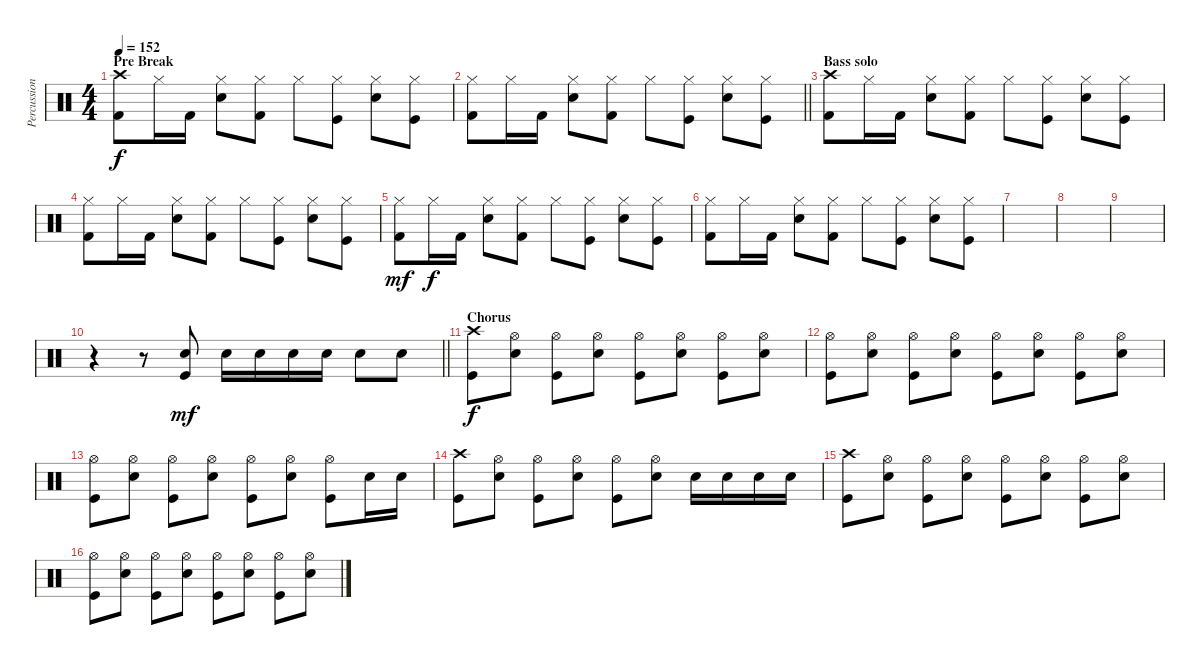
\track ("Percussion" "Percussion") {instrument percussion}
\staff {score}
\articulation defaults
\ts (4 4)
\section ("" "Pre Break")
\tempo 152
\clef neutral
\ks c
("Crash high (hit)" "Kick (hit) 2").8{dy f} "Hi-Hat (closed)".16 "Kick (hit) 2".16 ("Hi-Hat (closed)" "Snare (hit) 2").8 ("Hi-Hat (closed)" "Kick (hit) 2").8 "Hi-Hat (closed)".8 ("Hi-Hat (closed)" "Kick (hit)").8 ("Hi-Hat (closed)" "Snare (hit) 2").8 ("Hi-Hat (closed)" "Kick (hit)").8 |
\barLineRight lightlight
("Hi-Hat (closed)" "Kick (hit) 2").8 "Hi-Hat (closed)".16 "Kick (hit) 2".16 ("Hi-Hat (closed)" "Snare (hit) 2").8 ("Hi-Hat (closed)" "Kick (hit) 2").8 "Hi-Hat (closed)".8 ("Hi-Hat (closed)" "Kick (hit)").8 ("Hi-Hat (closed)" "Snare (hit) 2").8 ("Hi-Hat (closed)" "Kick (hit)").8 |
\section ("" "Bass solo")
("Crash high (hit)" "Kick (hit) 2").8 "Hi-Hat (closed)".16 "Kick (hit) 2".16 ("Hi-Hat (closed)" "Snare (hit) 2").8 ("Hi-Hat (closed)" "Kick (hit) 2").8 "Hi-Hat (closed)".8 ("Hi-Hat (closed)" "Kick (hit)").8 ("Hi-Hat (closed)" "Snare (hit) 2").8 ("Hi-Hat (closed)" "Kick (hit)").8 |
("Hi-Hat (closed)" "Kick (hit) 2").8 "Hi-Hat (closed)".16 "Kick (hit) 2".16 ("Hi-Hat (closed)" "Snare (hit) 2").8 ("Hi-Hat (closed)" "Kick (hit) 2").8 "Hi-Hat (closed)".8 ("Hi-Hat (closed)" "Kick (hit)").8 ("Hi-Hat (closed)" "Snare (hit) 2").8 ("Hi-Hat (closed)" "Kick (hit)").8 |
("Hi-Hat (closed)" "Kick (hit) 2").8{dy mf} "Hi-Hat (closed)".16{dy f} "Kick (hit) 2".16 ("Hi-Hat (closed)" "Snare (hit) 2").8 ("Hi-Hat (closed)" "Kick (hit) 2").8 "Hi-Hat (closed)".8 ("Hi-Hat (closed)" "Kick (hit)").8 ("Hi-Hat (closed)" "Snare (hit) 2").8 ("Hi-Hat (closed)" "Kick (hit)").8 |
("Hi-Hat (closed)" "Kick (hit) 2").8 "Hi-Hat (closed)".16 "Kick (hit) 2".16 ("Hi-Hat (closed)" "Snare (hit) 2").8 ("Hi-Hat (closed)" "Kick (hit) 2").8 "Hi-Hat (closed)".8 ("Hi-Hat (closed)" "Kick (hit)").8 ("Hi-Hat (closed)" "Snare (hit) 2").8 ("Hi-Hat (closed)" "Kick (hit)").8 |
|
|
|
\barLineRight lightlight
r.4 r.8 ("Snare (hit) 2" "Kick (hit)").8{dy mf} "Snare (hit) 2".16 "Snare (hit) 2".16 "Snare (hit) 2".16 "Snare (hit) 2".16 "Snare (hit) 2".8 "Snare (hit) 2".8 |
\section ("" "Chorus")
("Crash high (hit)" "Kick (hit)").8{dy f} ("Hi-Hat (open)" "Snare (hit) 2").8 ("Hi-Hat (open)" "Kick (hit)").8 ("Hi-Hat (open)" "Snare (hit) 2").8 ("Hi-Hat (open)" "Kick (hit)").8 ("Hi-Hat (open)" "Snare (hit) 2").8 ("Hi-Hat (open)" "Kick (hit)").8 ("Hi-Hat (open)" "Snare (hit) 2").8 |
("Hi-Hat (open)" "Kick (hit)").8 ("Hi-Hat (open)" "Snare (hit) 2").8 ("Hi-Hat (open)" "Kick (hit)").8 ("Hi-Hat (open)" "Snare (hit) 2").8 ("Hi-Hat (open)" "Kick (hit)").8 ("Hi-Hat (open)" "Snare (hit) 2").8 ("Hi-Hat (open)" "Kick (hit)").8 ("Hi-Hat (open)" "Snare (hit) 2").8 |
("Hi-Hat (open)" "Kick (hit)").8 ("Hi-Hat (open)" "Snare (hit) 2").8 ("Hi-Hat (open)" "Kick (hit)").8 ("Hi-Hat (open)" "Snare (hit) 2").8 ("Hi-Hat (open)" "Kick (hit)").8 ("Hi-Hat (open)" "Snare (hit) 2").8 ("Hi-Hat (open)" "Kick (hit)").8 "Snare (hit) 2".16 "Snare (hit) 2".16 |
("Crash high (hit)" "Kick (hit)").8 ("Hi-Hat (open)" "Snare (hit) 2").8 ("Hi-Hat (open)" "Kick (hit)").8 ("Hi-Hat (open)" "Snare (hit) 2").8 ("Hi-Hat (open)" "Kick (hit)").8 ("Hi-Hat (open)" "Snare (hit) 2").8 "Snare (hit) 2".16 "Snare (hit) 2".16 "Snare (hit) 2".16 "Snare (hit) 2".16 |
("Crash high (hit)" "Kick (hit)").8 ("Hi-Hat (open)" "Snare (hit) 2").8 ("Hi-Hat (open)" "Kick (hit)").8 ("Hi-Hat (open)" "Snare (hit) 2").8 ("Hi-Hat (open)" "Kick (hit)").8 ("Hi-Hat (open)" "Snare (hit) 2").8 ("Hi-Hat (open)" "Kick (hit)").8 ("Hi-Hat (open)" "Snare (hit) 2").8 |
("Hi-Hat (open)" "Kick (hit)").8 ("Hi-Hat (open)" "Snare (hit) 2").8 ("Hi-Hat (open)" "Kick (hit)").8 ("Hi-Hat (open)" "Snare (hit) 2").8 ("Hi-Hat (open)" "Kick (hit)").8 ("Hi-Hat (open)" "Snare (hit) 2").8 ("Hi-Hat (open)" "Kick (hit)").8 ("Hi-Hat (open)" "Snare (hit) 2").8
